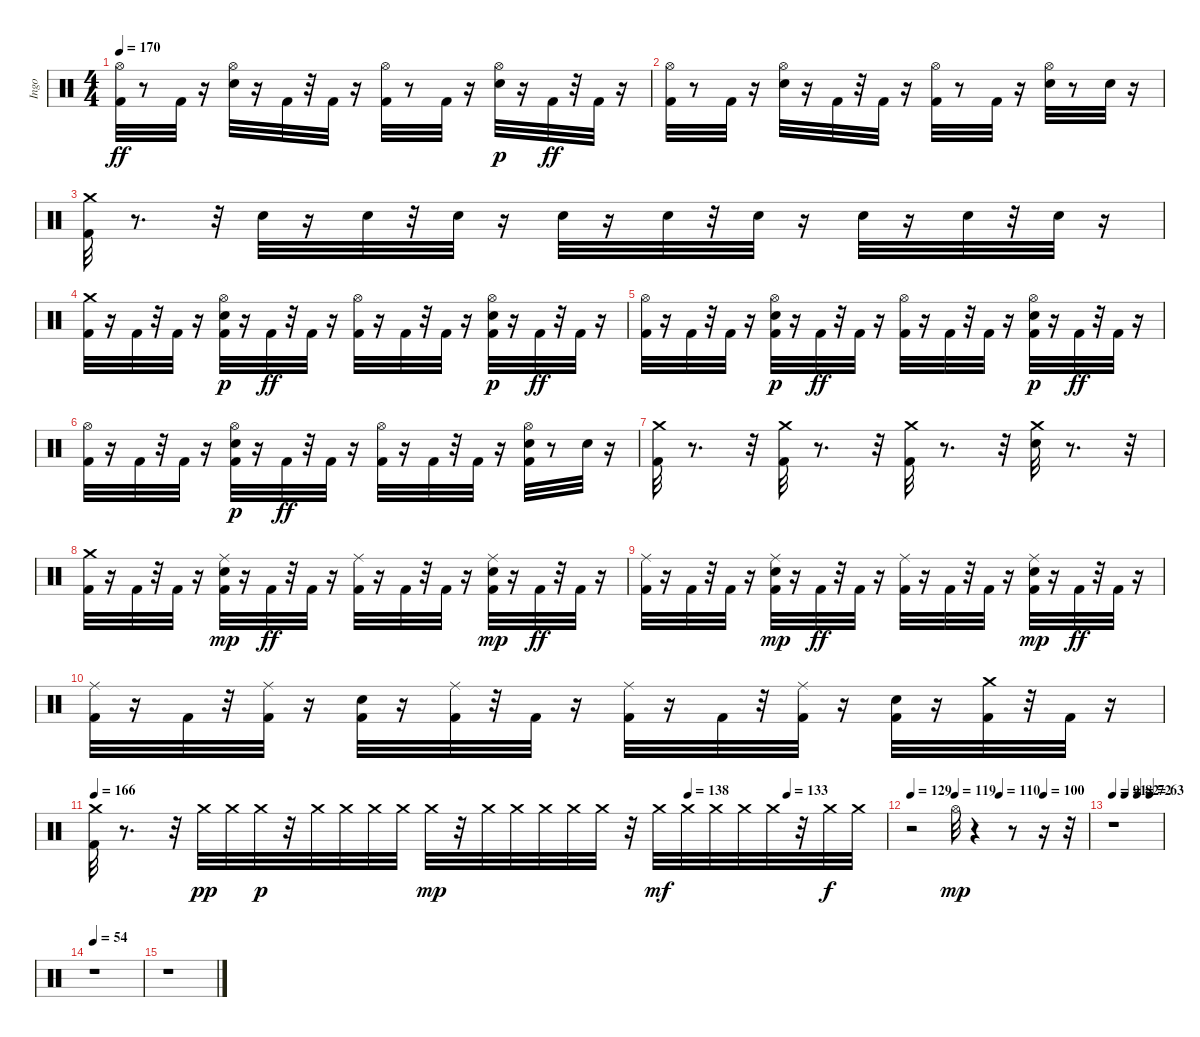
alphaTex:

\track ("Ingo" "Ingo") {instrument percussion}
\staff {score}
\articulation defaults
\ts (4 4)
\tempo 170
\clef neutral
\ks c
("Hi-Hat (open)" "Kick (hit) 2").32{dy ff} r.8 "Kick (hit) 2".32 r.16 ("Hi-Hat (open)" "Snare (hit) 2").32 r.16 "Kick (hit) 2".32 r.32 "Kick (hit) 2".32 r.16 ("Hi-Hat (open)" "Kick (hit) 2").32 r.8 "Kick (hit) 2".32 r.16 ("Snare (hit) 2" "Hi-Hat (open)").32{dy p} r.16 "Kick (hit) 2".32{dy ff} r.32 "Kick (hit) 2".32 r.16 |
("Hi-Hat (open)" "Kick (hit) 2").32 r.8 "Kick (hit) 2".32 r.16 ("Hi-Hat (open)" "Snare (hit) 2").32 r.16 "Kick (hit) 2".32 r.32 "Kick (hit) 2".32 r.16 ("Hi-Hat (open)" "Kick (hit) 2").32 r.8 "Kick (hit) 2".32 r.16 ("Hi-Hat (open)" "Snare (hit) 2").32 r.8 "Snare (hit) 2".32 r.16 |
("Crash medium (hit)" "Kick (hit) 2").32 r.8{d} r.32 "Snare (hit) 2".32 r.16 "Snare (hit) 2".32 r.32 "Snare (hit) 2".32 r.16 "Snare (hit) 2".32 r.16 "Snare (hit) 2".32 r.32 "Snare (hit) 2".32 r.16 "Snare (hit) 2".32 r.16 "Snare (hit) 2".32 r.32 "Snare (hit) 2".32 r.16 |
("Crash medium (hit)" "Kick (hit) 2").32 r.16 "Kick (hit) 2".32 r.32 "Kick (hit) 2".32 r.16 ("Kick (hit) 2" "Snare (hit) 2" "Hi-Hat (open)").32{dy p} r.16 "Kick (hit) 2".32{dy ff} r.32 "Kick (hit) 2".32 r.16 ("Hi-Hat (open)" "Kick (hit) 2").32 r.16 "Kick (hit) 2".32 r.32 "Kick (hit) 2".32 r.16 ("Kick (hit) 2" "Snare (hit) 2" "Hi-Hat (open)").32{dy p} r.16 "Kick (hit) 2".32{dy ff} r.32 "Kick (hit) 2".32 r.16 |
("Hi-Hat (open)" "Kick (hit) 2").32 r.16 "Kick (hit) 2".32 r.32 "Kick (hit) 2".32 r.16 ("Kick (hit) 2" "Snare (hit) 2" "Hi-Hat (open)").32{dy p} r.16 "Kick (hit) 2".32{dy ff} r.32 "Kick (hit) 2".32 r.16 ("Hi-Hat (open)" "Kick (hit) 2").32 r.16 "Kick (hit) 2".32 r.32 "Kick (hit) 2".32 r.16 ("Kick (hit) 2" "Snare (hit) 2" "Hi-Hat (open)").32{dy p} r.16 "Kick (hit) 2".32{dy ff} r.32 "Kick (hit) 2".32 r.16 |
("Hi-Hat (open)" "Kick (hit) 2").32 r.16 "Kick (hit) 2".32 r.32 "Kick (hit) 2".32 r.16 ("Kick (hit) 2" "Snare (hit) 2" "Hi-Hat (open)").32{dy p} r.16 "Kick (hit) 2".32{dy ff} r.32 "Kick (hit) 2".32 r.16 ("Hi-Hat (open)" "Kick (hit) 2").32 r.16 "Kick (hit) 2".32 r.32 "Kick (hit) 2".32 r.16 ("Kick (hit) 2" "Hi-Hat (open)" "Snare (hit) 2").32 r.8 "Snare (hit) 2".32 r.16 |
("Crash medium (hit)" "Kick (hit) 2").32 r.8{d} r.32 ("Crash medium (hit)" "Kick (hit) 2").32 r.8{d} r.32 ("Crash medium (hit)" "Kick (hit) 2").32 r.8{d} r.32 ("Snare (hit) 2" "Crash medium (hit)").32 r.8{d} r.32 |
("Crash medium (hit)" "Kick (hit) 2").32 r.16 "Kick (hit) 2".32 r.32 "Kick (hit) 2".32 r.16 ("Kick (hit) 2" "Snare (hit) 2" "Ride (middle)").32{dy mp} r.16 "Kick (hit) 2".32{dy ff} r.32 "Kick (hit) 2".32 r.16 ("Ride (middle)" "Kick (hit) 2").32 r.16 "Kick (hit) 2".32 r.32 "Kick (hit) 2".32 r.16 ("Kick (hit) 2" "Snare (hit) 2" "Ride (middle)").32{dy mp} r.16 "Kick (hit) 2".32{dy ff} r.32 "Kick (hit) 2".32 r.16 |
("Ride (middle)" "Kick (hit) 2").32 r.16 "Kick (hit) 2".32 r.32 "Kick (hit) 2".32 r.16 ("Kick (hit) 2" "Snare (hit) 2" "Ride (middle)").32{dy mp} r.16 "Kick (hit) 2".32{dy ff} r.32 "Kick (hit) 2".32 r.16 ("Ride (middle)" "Kick (hit) 2").32 r.16 "Kick (hit) 2".32 r.32 "Kick (hit) 2".32 r.16 ("Kick (hit) 2" "Snare (hit) 2" "Ride (middle)").32{dy mp} r.16 "Kick (hit) 2".32{dy ff} r.32 "Kick (hit) 2".32 r.16 |
("Ride (middle)" "Kick (hit) 2").32 r.16 "Kick (hit) 2".32 r.32 ("Ride (middle)" "Kick (hit) 2").32 r.16 ("Snare (hit) 2" "Kick (hit) 2").32 r.16 ("Ride (middle)" "Kick (hit) 2").32 r.32 "Kick (hit) 2".32 r.16 ("Ride (middle)" "Kick (hit) 2").32 r.16 "Kick (hit) 2".32 r.32 ("Ride (middle)" "Kick (hit) 2").32 r.16 ("Snare (hit) 2" "Kick (hit) 2").32 r.16 ("Crash medium (hit)" "Kick (hit) 2").32 r.32 "Kick (hit) 2".32 r.16 |
\tempo 166
\tempo (138 0.75)
\tempo (133 0.875)
("Crash medium (hit)" "Kick (hit) 2").32 r.8{d} r.32 "Crash medium (hit)".32{dy pp} "Crash medium (hit)".32 "Crash medium (hit)".32{dy p} r.32 "Crash medium (hit)".32 "Crash medium (hit)".32 "Crash medium (hit)".32 "Crash medium (hit)".32 "Crash medium (hit)".32{dy mp} r.32 "Crash medium (hit)".32 "Crash medium (hit)".32 "Crash medium (hit)".32 "Crash medium (hit)".32 "Crash medium (hit)".32 r.32 "Crash medium (hit)".32{dy mf} "Crash medium (hit)".32 "Crash medium (hit)".32 "Crash medium (hit)".32 "Crash medium (hit)".32 r.32 "Crash medium (hit)".32{dy f} "Crash medium (hit)".32 |
\tempo 129
\tempo (119 0.25)
\tempo (110 0.5)
\tempo (100 0.75)
r.2 "Hi-Hat (open)".32{dy mp} r.4 r.8 r.16 r.32 |
\tempo 91
\tempo (82 0.25)
\tempo (72 0.5)
\tempo (63 0.75)
r.1 |
\tempo 54
r.1 |
r.1
